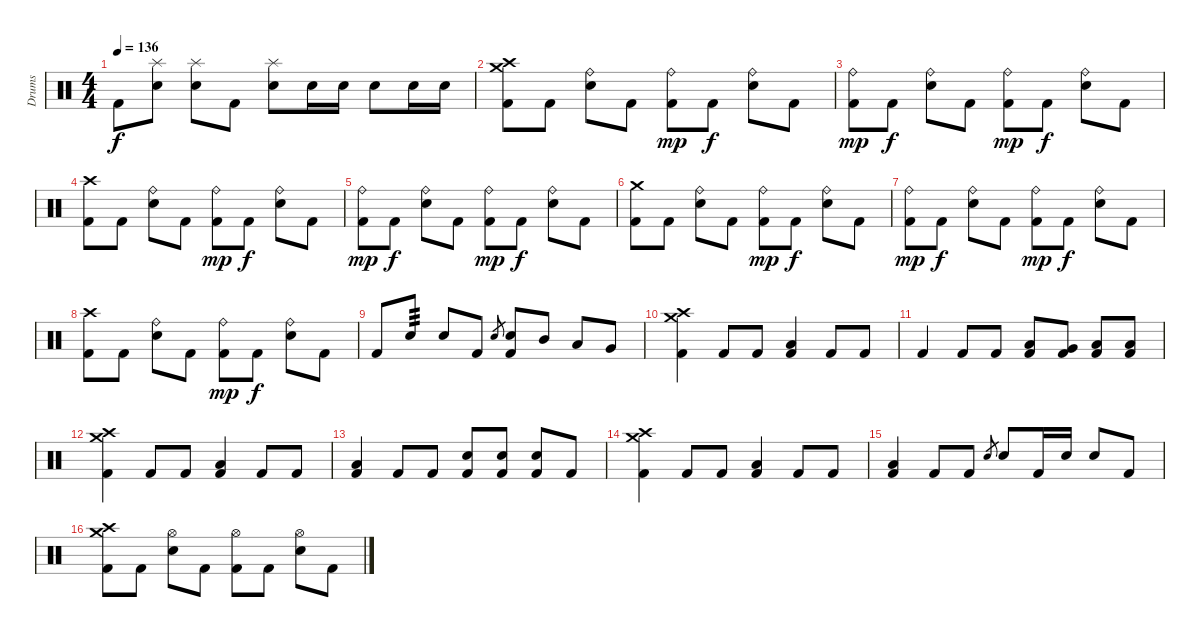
\track ("Drums" "Drums") {instrument percussion}
\staff {score}
\articulation defaults
\ts (4 4)
\tempo 136
\clef neutral
\ks c "Kick (hit) 2".8{dy f}
("Splash (hit)" "Electric Snare (hit)").8 ("Splash (hit)" "Electric Snare (hit)").8 "Kick (hit) 2".8 ("Splash (hit)" "Electric Snare (hit)").8 "Electric Snare (hit)".16 "Electric Snare (hit)".16 "Electric Snare (hit)".8 "Electric Snare (hit)".16 "Electric Snare (hit)".16 |
("Crash medium (hit)" "Crash high (hit)" "Kick (hit) 2").8 "Kick (hit) 2".8 ("Ride (bell)" "Electric Snare (hit)").8 "Kick (hit) 2".8 ("Ride (bell)" "Kick (hit) 2").8{dy mp} "Kick (hit) 2".8{dy f} ("Ride (bell)" "Electric Snare (hit)").8 "Kick (hit) 2".8 |
("Ride (bell)" "Kick (hit) 2").8{dy mp} "Kick (hit) 2".8{dy f} ("Ride (bell)" "Electric Snare (hit)").8 "Kick (hit) 2".8 ("Ride (bell)" "Kick (hit) 2").8{dy mp} "Kick (hit) 2".8{dy f} ("Ride (bell)" "Electric Snare (hit)").8 "Kick (hit) 2".8 |
("Crash high (hit)" "Kick (hit) 2").8 "Kick (hit) 2".8 ("Ride (bell)" "Electric Snare (hit)").8 "Kick (hit) 2".8 ("Ride (bell)" "Kick (hit) 2").8{dy mp} "Kick (hit) 2".8{dy f} ("Ride (bell)" "Electric Snare (hit)").8 "Kick (hit) 2".8 |
("Ride (bell)" "Kick (hit) 2").8{dy mp} "Kick (hit) 2".8{dy f} ("Ride (bell)" "Electric Snare (hit)").8 "Kick (hit) 2".8 ("Ride (bell)" "Kick (hit) 2").8{dy mp} "Kick (hit) 2".8{dy f} ("Ride (bell)" "Electric Snare (hit)").8 "Kick (hit) 2".8 |
("Crash medium (hit)" "Kick (hit) 2").8 "Kick (hit) 2".8 ("Ride (bell)" "Electric Snare (hit)").8 "Kick (hit) 2".8 ("Ride (bell)" "Kick (hit) 2").8{dy mp} "Kick (hit) 2".8{dy f} ("Ride (bell)" "Electric Snare (hit)").8 "Kick (hit) 2".8 |
("Ride (bell)" "Kick (hit) 2").8{dy mp} "Kick (hit) 2".8{dy f} ("Ride (bell)" "Electric Snare (hit)").8 "Kick (hit) 2".8 ("Ride (bell)" "Kick (hit) 2").8{dy mp} "Kick (hit) 2".8{dy f} ("Ride (bell)" "Electric Snare (hit)").8 "Kick (hit) 2".8 |
("Crash high (hit)" "Kick (hit) 2").8 "Kick (hit) 2".8 ("Ride (bell)" "Electric Snare (hit)").8 "Kick (hit) 2".8 ("Ride (bell)" "Kick (hit) 2").8{dy mp} "Kick (hit) 2".8{dy f} ("Ride (bell)" "Electric Snare (hit)").8 "Kick (hit) 2".8 |
"Kick (hit) 2".8 "Electric Snare (hit)".8{tp 3} "Snare (hit) 2".8 "Kick (hit) 2".8 "Electric Snare (hit)".8{gr} ("Electric Snare (hit)" "Kick (hit) 2").8 "Mid Tom (hit)".8 "Low Tom (hit)".8 "Very Low Tom (hit)".8 |
("Crash medium (hit)" "Crash high (hit)" "Kick (hit) 2").4 "Kick (hit) 2".8 "Kick (hit) 2".8 ("Low Tom (hit)" "Kick (hit) 2").4 "Kick (hit) 2".8 "Kick (hit) 2".8 |
"Kick (hit) 2".4 "Kick (hit) 2".8 "Kick (hit) 2".8 ("Low Tom (hit)" "Kick (hit) 2").8 ("Very Low Tom (hit)" "Kick (hit) 2").8 ("Low Floor Tom (hit)" "Kick (hit) 2").8 ("Low Floor Tom (hit)" "Kick (hit) 2").8 |
("Crash medium (hit)" "Crash high (hit)" "Kick (hit) 2").4 "Kick (hit) 2".8 "Kick (hit) 2".8 ("Low Tom (hit)" "Kick (hit) 2").4 "Kick (hit) 2".8 "Kick (hit) 2".8 |
("Low Tom (hit)" "Kick (hit) 2").4 "Kick (hit) 2".8 "Kick (hit) 2".8 ("Electric Snare (hit)" "Kick (hit) 2").8 ("Electric Snare (hit)" "Kick (hit) 2").8 ("Snare (hit) 2" "Kick (hit) 2").8 "Kick (hit) 2".8 |
("Crash medium (hit)" "Crash high (hit)" "Kick (hit) 2").4 "Kick (hit) 2".8 "Kick (hit) 2".8 ("Low Tom (hit)" "Kick (hit) 2").4 "Kick (hit) 2".8 "Kick (hit) 2".8 |
("Low Tom (hit)" "Kick (hit) 2").4 "Kick (hit) 2".8 "Kick (hit) 2".8 "Electric Snare (hit)".8{gr} "Electric Snare (hit)".8 "Kick (hit) 2".16 "Electric Snare (hit)".16 "Electric Snare (hit)".8 "Kick (hit) 2".8 |
("Crash medium (hit)" "Crash high (hit)" "Kick (hit) 2").8 "Kick (hit) 2".8 ("Hi-Hat (open)" "Electric Snare (hit)").8 "Kick (hit) 2".8 ("Hi-Hat (open)" "Kick (hit) 2").8 "Kick (hit) 2".8 ("Hi-Hat (open)" "Electric Snare (hit)").8 "Kick (hit) 2".8
